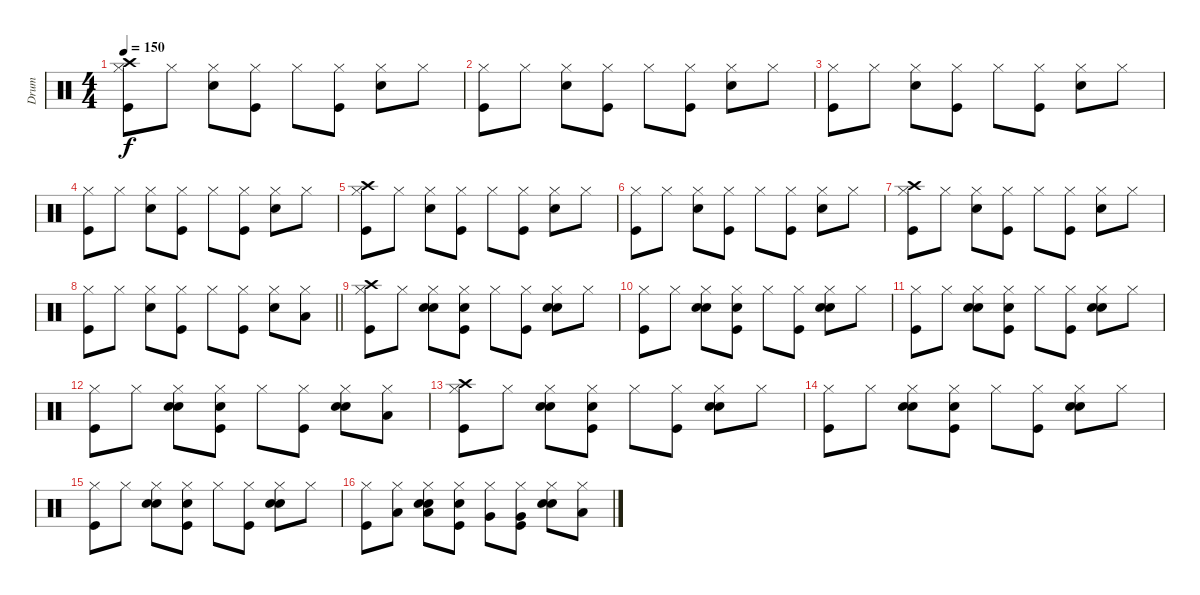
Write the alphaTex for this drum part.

\track ("Drum" "Drum") {instrument percussion}
\staff {score}
\articulation defaults
\ts (4 4)
\tempo 150
\clef neutral
\ks c
("Kick (hit)" "Hi-Hat (closed)" "Crash high (hit)").8{dy f} "Hi-Hat (closed)".8 ("Snare (hit) 2" "Hi-Hat (closed)").8 ("Kick (hit)" "Hi-Hat (closed)").8 "Hi-Hat (closed)".8 ("Kick (hit)" "Hi-Hat (closed)").8 ("Snare (hit) 2" "Hi-Hat (closed)").8 "Hi-Hat (closed)".8 |
("Kick (hit)" "Hi-Hat (closed)").8 "Hi-Hat (closed)".8 ("Snare (hit) 2" "Hi-Hat (closed)").8 ("Kick (hit)" "Hi-Hat (closed)").8 "Hi-Hat (closed)".8 ("Kick (hit)" "Hi-Hat (closed)").8 ("Snare (hit) 2" "Hi-Hat (closed)").8 "Hi-Hat (closed)".8 |
("Kick (hit)" "Hi-Hat (closed)").8 "Hi-Hat (closed)".8 ("Snare (hit) 2" "Hi-Hat (closed)").8 ("Kick (hit)" "Hi-Hat (closed)").8 "Hi-Hat (closed)".8 ("Kick (hit)" "Hi-Hat (closed)").8 ("Snare (hit) 2" "Hi-Hat (closed)").8 "Hi-Hat (closed)".8 |
("Kick (hit)" "Hi-Hat (closed)").8 "Hi-Hat (closed)".8 ("Snare (hit) 2" "Hi-Hat (closed)").8 ("Kick (hit)" "Hi-Hat (closed)").8 "Hi-Hat (closed)".8 ("Kick (hit)" "Hi-Hat (closed)").8 ("Snare (hit) 2" "Hi-Hat (closed)").8 "Hi-Hat (closed)".8 |
("Kick (hit)" "Hi-Hat (closed)" "Crash high (hit)").8 "Hi-Hat (closed)".8 ("Snare (hit) 2" "Hi-Hat (closed)").8 ("Kick (hit)" "Hi-Hat (closed)").8 "Hi-Hat (closed)".8 ("Kick (hit)" "Hi-Hat (closed)").8 ("Snare (hit) 2" "Hi-Hat (closed)").8 "Hi-Hat (closed)".8 |
("Kick (hit)" "Hi-Hat (closed)").8 "Hi-Hat (closed)".8 ("Snare (hit) 2" "Hi-Hat (closed)").8 ("Kick (hit)" "Hi-Hat (closed)").8 "Hi-Hat (closed)".8 ("Kick (hit)" "Hi-Hat (closed)").8 ("Snare (hit) 2" "Hi-Hat (closed)").8 "Hi-Hat (closed)".8 |
("Kick (hit)" "Hi-Hat (closed)" "Crash high (hit)").8 "Hi-Hat (closed)".8 ("Snare (hit) 2" "Hi-Hat (closed)").8 ("Kick (hit)" "Hi-Hat (closed)").8 "Hi-Hat (closed)".8 ("Kick (hit)" "Hi-Hat (closed)").8 ("Snare (hit) 2" "Hi-Hat (closed)").8 "Hi-Hat (closed)".8 |
\barLineRight lightlight
("Kick (hit)" "Hi-Hat (closed)").8 "Hi-Hat (closed)".8 ("Snare (hit) 2" "Hi-Hat (closed)").8 ("Kick (hit)" "Hi-Hat (closed)").8 "Hi-Hat (closed)".8 ("Kick (hit)" "Hi-Hat (closed)").8 ("Snare (hit) 2" "Hi-Hat (closed)").8 ("Hi-Hat (closed)" "Low Floor Tom (hit)").8 |
("Kick (hit)" "Hi-Hat (closed)" "Crash high (hit)").8 "Hi-Hat (closed)".8 ("Snare (hit) 2" "Hi-Hat (closed)" "Hand Clap (hit)").8 ("Kick (hit)" "Hi-Hat (closed)" "Hand Clap (hit)").8 "Hi-Hat (closed)".8 ("Kick (hit)" "Hi-Hat (closed)").8 ("Snare (hit) 2" "Hi-Hat (closed)" "Hand Clap (hit)").8 "Hi-Hat (closed)".8 |
("Kick (hit)" "Hi-Hat (closed)").8 "Hi-Hat (closed)".8 ("Snare (hit) 2" "Hi-Hat (closed)" "Hand Clap (hit)").8 ("Kick (hit)" "Hi-Hat (closed)" "Hand Clap (hit)").8 "Hi-Hat (closed)".8 ("Kick (hit)" "Hi-Hat (closed)").8 ("Snare (hit) 2" "Hi-Hat (closed)" "Hand Clap (hit)").8 "Hi-Hat (closed)".8 |
("Kick (hit)" "Hi-Hat (closed)").8 "Hi-Hat (closed)".8 ("Snare (hit) 2" "Hi-Hat (closed)" "Hand Clap (hit)").8 ("Kick (hit)" "Hi-Hat (closed)" "Hand Clap (hit)").8 "Hi-Hat (closed)".8 ("Kick (hit)" "Hi-Hat (closed)").8 ("Snare (hit) 2" "Hi-Hat (closed)" "Hand Clap (hit)").8 "Hi-Hat (closed)".8 |
("Kick (hit)" "Hi-Hat (closed)").8 "Hi-Hat (closed)".8 ("Snare (hit) 2" "Hi-Hat (closed)" "Hand Clap (hit)").8 ("Kick (hit)" "Hi-Hat (closed)" "Hand Clap (hit)").8 "Hi-Hat (closed)".8 ("Kick (hit)" "Hi-Hat (closed)").8 ("Snare (hit) 2" "Hi-Hat (closed)" "Hand Clap (hit)").8 ("Hi-Hat (closed)" "Low Floor Tom (hit)").8 |
("Kick (hit)" "Hi-Hat (closed)" "Crash high (hit)").8 "Hi-Hat (closed)".8 ("Snare (hit) 2" "Hi-Hat (closed)" "Hand Clap (hit)").8 ("Kick (hit)" "Hi-Hat (closed)" "Hand Clap (hit)").8 "Hi-Hat (closed)".8 ("Kick (hit)" "Hi-Hat (closed)").8 ("Snare (hit) 2" "Hi-Hat (closed)" "Hand Clap (hit)").8 "Hi-Hat (closed)".8 |
("Kick (hit)" "Hi-Hat (closed)").8 "Hi-Hat (closed)".8 ("Snare (hit) 2" "Hi-Hat (closed)" "Hand Clap (hit)").8 ("Kick (hit)" "Hi-Hat (closed)" "Hand Clap (hit)").8 "Hi-Hat (closed)".8 ("Kick (hit)" "Hi-Hat (closed)").8 ("Snare (hit) 2" "Hi-Hat (closed)" "Hand Clap (hit)").8 "Hi-Hat (closed)".8 |
("Kick (hit)" "Hi-Hat (closed)").8 "Hi-Hat (closed)".8 ("Snare (hit) 2" "Hi-Hat (closed)" "Hand Clap (hit)").8 ("Kick (hit)" "Hi-Hat (closed)" "Hand Clap (hit)").8 "Hi-Hat (closed)".8 ("Kick (hit)" "Hi-Hat (closed)").8 ("Snare (hit) 2" "Hi-Hat (closed)" "Hand Clap (hit)").8 "Hi-Hat (closed)".8 |
("Kick (hit)" "Hi-Hat (closed)").8 ("Hi-Hat (closed)" "Low Tom (hit)").8 ("Snare (hit) 2" "Hi-Hat (closed)" "Hand Clap (hit)" "Low Tom (hit)").8 ("Kick (hit)" "Hi-Hat (closed)" "Hand Clap (hit)").8 ("Hi-Hat (closed)" "Very Low Tom (hit)").8 ("Kick (hit)" "Hi-Hat (closed)" "Very Low Tom (hit)").8 ("Snare (hit) 2" "Hi-Hat (closed)" "Hand Clap (hit)").8 ("Hi-Hat (closed)" "Low Floor Tom (hit)").8
